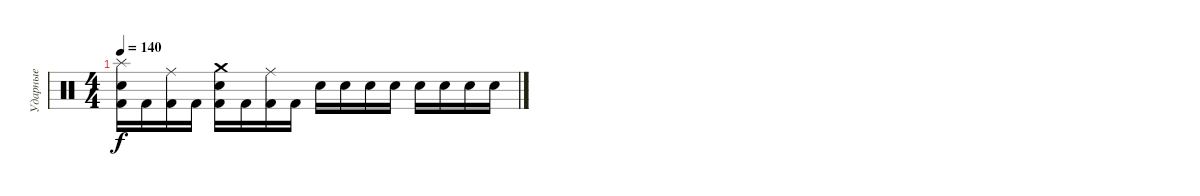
\track ("Ударные" "Ударные") {instrument percussion}
\staff {score}
\articulation defaults
\ts (4 4)
\tempo 140
\clef neutral
\ks c
("Splash (hit)" "Snare (hit) 2" "Kick (hit) 2").16{dy f} "Kick (hit) 2".16 ("Ride (middle)" "Kick (hit) 2").16 "Kick (hit) 2".16 ("Crash medium (hit)" "Snare (hit) 2" "Kick (hit) 2").16 "Kick (hit) 2".16 ("Ride (middle)" "Kick (hit) 2").16 "Kick (hit) 2".16 "Snare (hit) 2".16 "Snare (hit) 2".16 "Snare (hit) 2".16 "Snare (hit) 2".16 "Snare (hit) 2".16 "Snare (hit) 2".16 "Snare (hit) 2".16 "Snare (hit) 2".16
